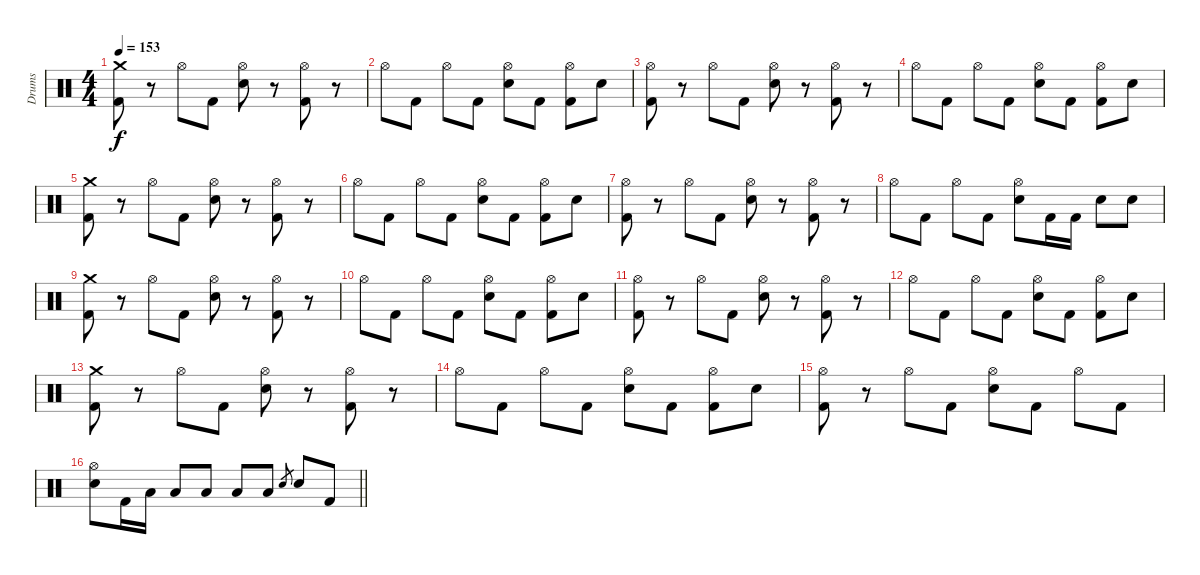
\track ("Drums" "Drums") {instrument percussion}
\staff {score}
\articulation defaults
\ts (4 4)
\tempo 153
\clef neutral
\ks c
("Crash medium (hit)" "Kick (hit) 2").8{dy f} r.8 "Hi-Hat (open)".8 "Kick (hit) 2".8 ("Hi-Hat (open)" "Electric Snare (hit)").8 r.8 ("Hi-Hat (open)" "Kick (hit) 2").8 r.8 |
"Hi-Hat (open)".8 "Kick (hit) 2".8 "Hi-Hat (open)".8 "Kick (hit) 2".8 ("Hi-Hat (open)" "Electric Snare (hit)").8 "Kick (hit) 2".8 ("Hi-Hat (open)" "Kick (hit) 2").8 "Electric Snare (hit)".8 |
("Hi-Hat (open)" "Kick (hit) 2").8 r.8 "Hi-Hat (open)".8 "Kick (hit) 2".8 ("Hi-Hat (open)" "Electric Snare (hit)").8 r.8 ("Hi-Hat (open)" "Kick (hit) 2").8 r.8 |
"Hi-Hat (open)".8 "Kick (hit) 2".8 "Hi-Hat (open)".8 "Kick (hit) 2".8 ("Hi-Hat (open)" "Electric Snare (hit)").8 "Kick (hit) 2".8 ("Hi-Hat (open)" "Kick (hit) 2").8 "Electric Snare (hit)".8 |
("Crash medium (hit)" "Kick (hit) 2").8 r.8 "Hi-Hat (open)".8 "Kick (hit) 2".8 ("Hi-Hat (open)" "Electric Snare (hit)").8 r.8 ("Hi-Hat (open)" "Kick (hit) 2").8 r.8 |
"Hi-Hat (open)".8 "Kick (hit) 2".8 "Hi-Hat (open)".8 "Kick (hit) 2".8 ("Hi-Hat (open)" "Electric Snare (hit)").8 "Kick (hit) 2".8 ("Hi-Hat (open)" "Kick (hit) 2").8 "Electric Snare (hit)".8 |
("Hi-Hat (open)" "Kick (hit) 2").8 r.8 "Hi-Hat (open)".8 "Kick (hit) 2".8 ("Hi-Hat (open)" "Electric Snare (hit)").8 r.8 ("Hi-Hat (open)" "Kick (hit) 2").8 r.8 |
"Hi-Hat (open)".8 "Kick (hit) 2".8 "Hi-Hat (open)".8 "Kick (hit) 2".8 ("Hi-Hat (open)" "Electric Snare (hit)").8 "Kick (hit) 2".16 "Kick (hit) 2".16 "Electric Snare (hit)".8 "Electric Snare (hit)".8 |
("Crash medium (hit)" "Kick (hit) 2").8 r.8 "Hi-Hat (open)".8 "Kick (hit) 2".8 ("Hi-Hat (open)" "Electric Snare (hit)").8 r.8 ("Hi-Hat (open)" "Kick (hit) 2").8 r.8 |
"Hi-Hat (open)".8 "Kick (hit) 2".8 "Hi-Hat (open)".8 "Kick (hit) 2".8 ("Hi-Hat (open)" "Electric Snare (hit)").8 "Kick (hit) 2".8 ("Hi-Hat (open)" "Kick (hit) 2").8 "Electric Snare (hit)".8 |
("Hi-Hat (open)" "Kick (hit) 2").8 r.8 "Hi-Hat (open)".8 "Kick (hit) 2".8 ("Hi-Hat (open)" "Electric Snare (hit)").8 r.8 ("Hi-Hat (open)" "Kick (hit) 2").8 r.8 |
"Hi-Hat (open)".8 "Kick (hit) 2".8 "Hi-Hat (open)".8 "Kick (hit) 2".8 ("Hi-Hat (open)" "Electric Snare (hit)").8 "Kick (hit) 2".8 ("Hi-Hat (open)" "Kick (hit) 2").8 "Electric Snare (hit)".8 |
("Crash medium (hit)" "Kick (hit) 2").8 r.8 "Hi-Hat (open)".8 "Kick (hit) 2".8 ("Hi-Hat (open)" "Electric Snare (hit)").8 r.8 ("Hi-Hat (open)" "Kick (hit) 2").8 r.8 |
"Hi-Hat (open)".8 "Kick (hit) 2".8 "Hi-Hat (open)".8 "Kick (hit) 2".8 ("Hi-Hat (open)" "Electric Snare (hit)").8 "Kick (hit) 2".8 ("Hi-Hat (open)" "Kick (hit) 2").8 "Electric Snare (hit)".8 |
("Hi-Hat (open)" "Kick (hit) 2").8 r.8 "Hi-Hat (open)".8 "Kick (hit) 2".8 ("Hi-Hat (open)" "Electric Snare (hit)").8 "Kick (hit) 2".8 "Hi-Hat (open)".8 "Kick (hit) 2".8 |
\barLineRight lightlight
("Hi-Hat (open)" "Electric Snare (hit)").8 "Kick (hit) 2".16 "Low Tom (hit)".16 "Low Tom (hit)".8 "Low Tom (hit)".8 "Low Tom (hit)".8 "Low Tom (hit)".8 "Electric Snare (hit)".8{gr} "Electric Snare (hit)".8 "Kick (hit) 2".8
